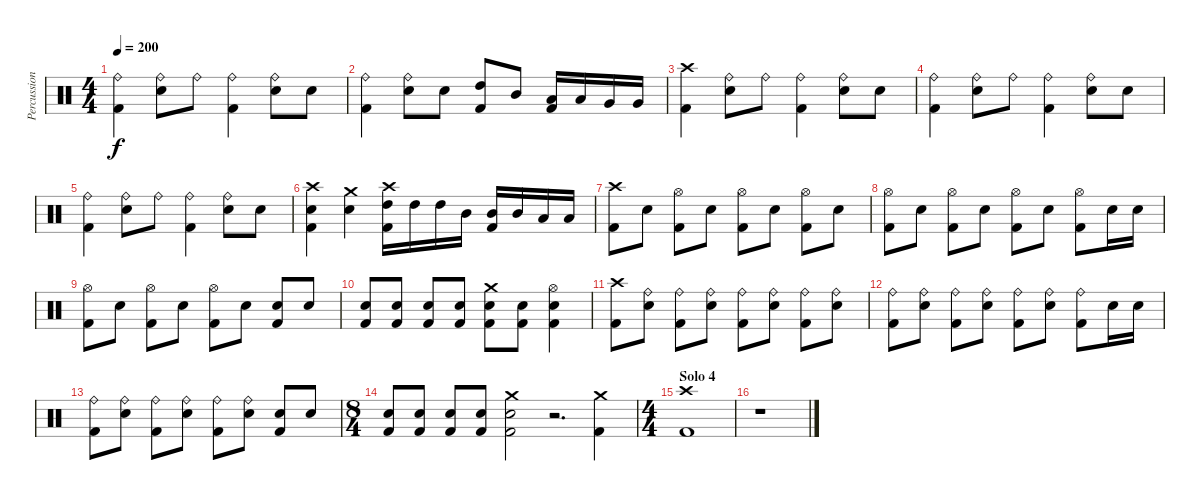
\track ("Percussion" "Percussion") {instrument percussion}
\staff {score}
\articulation defaults
\ts (4 4)
\tempo 200
\clef neutral
\ks c
("Ride (bell)" "Kick (hit) 2").4{dy f} ("Ride (bell)" "Electric Snare (hit)").8 "Ride (bell)".8 ("Ride (bell)" "Kick (hit) 2").4 ("Ride (bell)" "Electric Snare (hit)").8 "Electric Snare (hit)".8 |
("Ride (bell)" "Kick (hit) 2").4 ("Ride (bell)" "Electric Snare (hit)").8 "Electric Snare (hit)".8 ("High Tom (hit)" "Kick (hit) 2").8 "Mid Tom (hit)".8 ("Low Tom (hit)" "Kick (hit) 2").16 "Low Tom (hit)".16 "Very Low Tom (hit)".16 "Very Low Tom (hit)".16 |
("Crash high (hit)" "Kick (hit) 2").4 ("Ride (bell)" "Electric Snare (hit)").8 "Ride (bell)".8 ("Ride (bell)" "Kick (hit) 2").4 ("Ride (bell)" "Electric Snare (hit)").8 "Electric Snare (hit)".8 |
("Ride (bell)" "Kick (hit) 2").4 ("Ride (bell)" "Electric Snare (hit)").8 "Ride (bell)".8 ("Ride (bell)" "Kick (hit) 2").4 ("Ride (bell)" "Electric Snare (hit)").8 "Electric Snare (hit)".8 |
("Ride (bell)" "Kick (hit) 2").4 ("Ride (bell)" "Electric Snare (hit)").8 "Ride (bell)".8 ("Ride (bell)" "Kick (hit) 2").4 ("Ride (bell)" "Electric Snare (hit)").8 "Electric Snare (hit)".8 |
("Crash high (hit)" "Electric Snare (hit)" "Kick (hit) 2").4 ("Crash medium (hit)" "Electric Snare (hit)").4 ("Crash high (hit)" "High Tom (hit)" "Kick (hit) 2").16 "High Tom (hit)".16 "High Tom (hit)".16 "Mid Tom (hit)".16 ("Mid Tom (hit)" "Kick (hit) 2").16 "Mid Tom (hit)".16 "Low Tom (hit)".16 "Low Tom (hit)".16 |
("Crash high (hit)" "Kick (hit) 2").8 "Electric Snare (hit)".8 ("Hi-Hat (open)" "Kick (hit) 2").8 "Electric Snare (hit)".8 ("Hi-Hat (open)" "Kick (hit) 2").8 "Electric Snare (hit)".8 ("Hi-Hat (open)" "Kick (hit) 2").8 "Electric Snare (hit)".8 |
("Hi-Hat (open)" "Kick (hit) 2").8 "Electric Snare (hit)".8 ("Hi-Hat (open)" "Kick (hit) 2").8 "Electric Snare (hit)".8 ("Hi-Hat (open)" "Kick (hit) 2").8 "Electric Snare (hit)".8 ("Hi-Hat (open)" "Kick (hit) 2").8 "Electric Snare (hit)".16 "Electric Snare (hit)".16 |
("Hi-Hat (open)" "Kick (hit) 2").8 "Electric Snare (hit)".8 ("Hi-Hat (open)" "Kick (hit) 2").8 "Electric Snare (hit)".8 ("Hi-Hat (open)" "Kick (hit) 2").8 "Electric Snare (hit)".8 ("Electric Snare (hit)" "Kick (hit) 2").8 "Electric Snare (hit)".8 |
("Electric Snare (hit)" "Kick (hit) 2").8 ("Electric Snare (hit)" "Kick (hit) 2").8 ("Electric Snare (hit)" "Kick (hit) 2").8 ("Electric Snare (hit)" "Kick (hit) 2").8 ("Crash medium (hit)" "Electric Snare (hit)" "Kick (hit) 2").8 ("Electric Snare (hit)" "Kick (hit) 2").8 ("Hi-Hat (open)" "Electric Snare (hit)" "Kick (hit) 2").4 |
("Crash high (hit)" "Kick (hit) 2").8 ("Ride (bell)" "Electric Snare (hit)").8 ("Ride (bell)" "Kick (hit) 2").8 ("Ride (bell)" "Electric Snare (hit)").8 ("Ride (bell)" "Kick (hit) 2").8 ("Ride (bell)" "Electric Snare (hit)").8 ("Ride (bell)" "Kick (hit) 2").8 ("Ride (bell)" "Electric Snare (hit)").8 |
("Ride (bell)" "Kick (hit) 2").8 ("Ride (bell)" "Electric Snare (hit)").8 ("Ride (bell)" "Kick (hit) 2").8 ("Ride (bell)" "Electric Snare (hit)").8 ("Ride (bell)" "Kick (hit) 2").8 ("Ride (bell)" "Electric Snare (hit)").8 ("Ride (bell)" "Kick (hit) 2").8 "Electric Snare (hit)".16 "Electric Snare (hit)".16 |
("Ride (bell)" "Kick (hit) 2").8 ("Ride (bell)" "Electric Snare (hit)").8 ("Ride (bell)" "Kick (hit) 2").8 ("Ride (bell)" "Electric Snare (hit)").8 ("Ride (bell)" "Kick (hit) 2").8 ("Ride (bell)" "Electric Snare (hit)").8 ("Electric Snare (hit)" "Kick (hit) 2").8 "Electric Snare (hit)".8 |
\ts (8 4)
("Electric Snare (hit)" "Kick (hit) 2").8 ("Electric Snare (hit)" "Kick (hit) 2").8 ("Electric Snare (hit)" "Kick (hit) 2").8 ("Electric Snare (hit)" "Kick (hit) 2").8 ("Crash medium (hit)" "Electric Snare (hit)" "Kick (hit) 2").2 r.2{d} ("Crash medium (hit)" "Kick (hit) 2").4 |
\ts (4 4)
\section ("" "Solo 4")
("Crash high (hit)" "Kick (hit) 2").1 |
r.1
